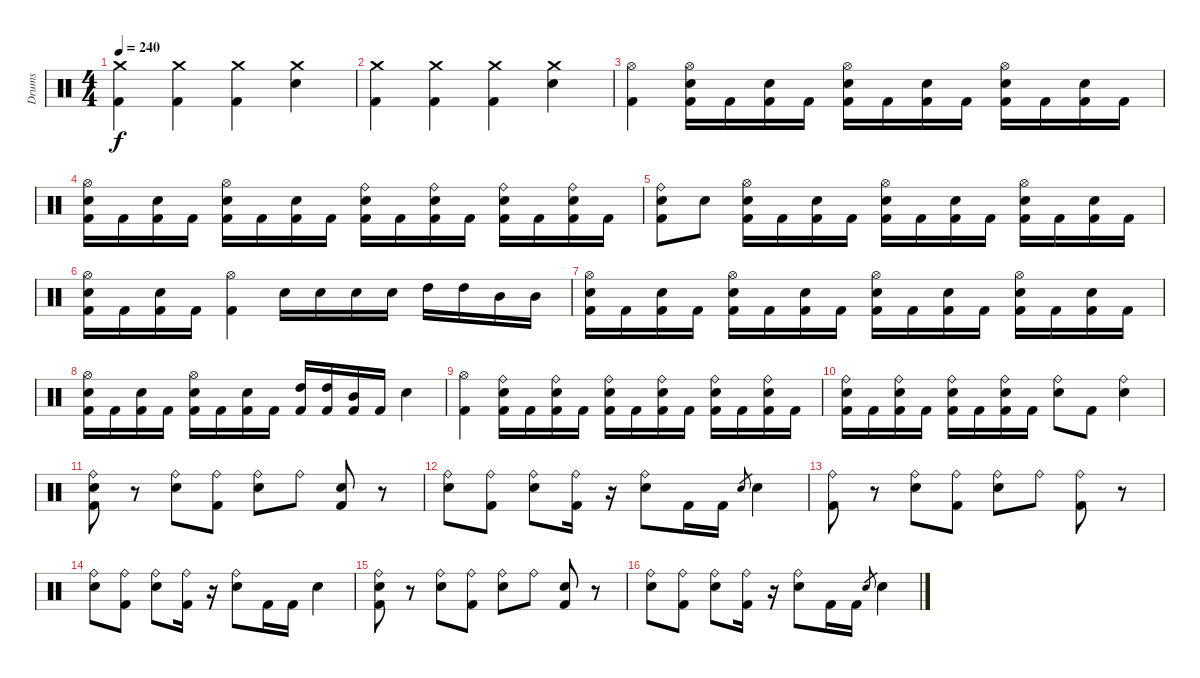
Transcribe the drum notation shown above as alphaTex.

\track ("Drums" "Drums") {instrument percussion}
\staff {score}
\articulation defaults
\ts (4 4)
\tempo 240
\clef neutral
\ks c
("Crash medium (hit)" "Kick (hit) 2").4{dy f} ("Crash medium (hit)" "Kick (hit) 2").4 ("Crash medium (hit)" "Kick (hit) 2").4 ("Crash medium (hit)" "Snare (hit) 2").4 |
("Crash medium (hit)" "Kick (hit) 2").4 ("Crash medium (hit)" "Kick (hit) 2").4 ("Crash medium (hit)" "Kick (hit) 2").4 ("Crash medium (hit)" "Snare (hit) 2").4 |
("Hi-Hat (open)" "Kick (hit) 2").4 ("Hi-Hat (open)" "Snare (hit) 2" "Kick (hit) 2").16 "Kick (hit) 2".16 ("Snare (hit) 2" "Kick (hit) 2").16 "Kick (hit) 2".16 ("Hi-Hat (open)" "Snare (hit) 2" "Kick (hit) 2").16 "Kick (hit) 2".16 ("Snare (hit) 2" "Kick (hit) 2").16 "Kick (hit) 2".16 ("Hi-Hat (open)" "Snare (hit) 2" "Kick (hit) 2").16 "Kick (hit) 2".16 ("Snare (hit) 2" "Kick (hit) 2").16 "Kick (hit) 2".16 |
("Hi-Hat (open)" "Snare (hit) 2" "Kick (hit) 2").16 "Kick (hit) 2".16 ("Snare (hit) 2" "Kick (hit) 2").16 "Kick (hit) 2".16 ("Hi-Hat (open)" "Snare (hit) 2" "Kick (hit) 2").16 "Kick (hit) 2".16 ("Snare (hit) 2" "Kick (hit) 2").16 "Kick (hit) 2".16 ("Ride (bell)" "Snare (hit) 2" "Kick (hit) 2").16 "Kick (hit) 2".16 ("Ride (bell)" "Snare (hit) 2" "Kick (hit) 2").16 "Kick (hit) 2".16 ("Ride (bell)" "Snare (hit) 2" "Kick (hit) 2").16 "Kick (hit) 2".16 ("Ride (bell)" "Snare (hit) 2" "Kick (hit) 2").16 "Kick (hit) 2".16 |
("Ride (bell)" "Snare (hit) 2" "Kick (hit) 2").8 "Snare (hit) 2".8 ("Hi-Hat (open)" "Snare (hit) 2" "Kick (hit) 2").16 "Kick (hit) 2".16 ("Snare (hit) 2" "Kick (hit) 2").16 "Kick (hit) 2".16 ("Hi-Hat (open)" "Snare (hit) 2" "Kick (hit) 2").16 "Kick (hit) 2".16 ("Snare (hit) 2" "Kick (hit) 2").16 "Kick (hit) 2".16 ("Hi-Hat (open)" "Snare (hit) 2" "Kick (hit) 2").16 "Kick (hit) 2".16 ("Snare (hit) 2" "Kick (hit) 2").16 "Kick (hit) 2".16 |
("Hi-Hat (open)" "Snare (hit) 2" "Kick (hit) 2").16 "Kick (hit) 2".16 ("Snare (hit) 2" "Kick (hit) 2").16 "Kick (hit) 2".16 ("Hi-Hat (open)" "Kick (hit) 2").4 "Snare (hit) 2".16 "Snare (hit) 2".16 "Snare (hit) 2".16 "Snare (hit) 2".16 "High Tom (hit)".16 "High Tom (hit)".16 "Mid Tom (hit)".16 "Mid Tom (hit)".16 |
("Hi-Hat (open)" "Snare (hit) 2" "Kick (hit) 2").16 "Kick (hit) 2".16 ("Snare (hit) 2" "Kick (hit) 2").16 "Kick (hit) 2".16 ("Hi-Hat (open)" "Snare (hit) 2" "Kick (hit) 2").16 "Kick (hit) 2".16 ("Snare (hit) 2" "Kick (hit) 2").16 "Kick (hit) 2".16 ("Hi-Hat (open)" "Snare (hit) 2" "Kick (hit) 2").16 "Kick (hit) 2".16 ("Snare (hit) 2" "Kick (hit) 2").16 "Kick (hit) 2".16 ("Hi-Hat (open)" "Snare (hit) 2" "Kick (hit) 2").16 "Kick (hit) 2".16 ("Snare (hit) 2" "Kick (hit) 2").16 "Kick (hit) 2".16 |
("Hi-Hat (open)" "Snare (hit) 2" "Kick (hit) 2").16 "Kick (hit) 2".16 ("Snare (hit) 2" "Kick (hit) 2").16 "Kick (hit) 2".16 ("Hi-Hat (open)" "Snare (hit) 2" "Kick (hit) 2").16 "Kick (hit) 2".16 ("Snare (hit) 2" "Kick (hit) 2").16 "Kick (hit) 2".16 ("High Tom (hit)" "Kick (hit) 2").16 ("High Tom (hit)" "Kick (hit) 2").16 ("Mid Tom (hit)" "Kick (hit) 2").16 "Kick (hit) 2".16 "Snare (hit) 2".4 |
("Hi-Hat (open)" "Kick (hit) 2").4 ("Ride (bell)" "Snare (hit) 2" "Kick (hit) 2").16 "Kick (hit) 2".16 ("Ride (bell)" "Snare (hit) 2" "Kick (hit) 2").16 "Kick (hit) 2".16 ("Ride (bell)" "Snare (hit) 2" "Kick (hit) 2").16 "Kick (hit) 2".16 ("Ride (bell)" "Snare (hit) 2" "Kick (hit) 2").16 "Kick (hit) 2".16 ("Ride (bell)" "Snare (hit) 2" "Kick (hit) 2").16 "Kick (hit) 2".16 ("Ride (bell)" "Snare (hit) 2" "Kick (hit) 2").16 "Kick (hit) 2".16 |
("Ride (bell)" "Snare (hit) 2" "Kick (hit) 2").16 "Kick (hit) 2".16 ("Ride (bell)" "Snare (hit) 2" "Kick (hit) 2").16 "Kick (hit) 2".16 ("Ride (bell)" "Snare (hit) 2" "Kick (hit) 2").16 "Kick (hit) 2".16 ("Ride (bell)" "Snare (hit) 2" "Kick (hit) 2").16 "Kick (hit) 2".16 ("Ride (bell)" "Snare (hit) 2").8 "Kick (hit) 2".8 ("Ride (bell)" "Snare (hit) 2").4 |
("Ride (bell)" "Snare (hit) 2" "Kick (hit) 2").8 r.8 ("Ride (bell)" "Snare (hit) 2").8 ("Ride (bell)" "Kick (hit) 2").8 ("Ride (bell)" "Snare (hit) 2").8 "Ride (bell)".8 ("Snare (hit) 2" "Kick (hit) 2").8 r.8 |
("Ride (bell)" "Snare (hit) 2").8 ("Ride (bell)" "Kick (hit) 2").8 ("Ride (bell)" "Snare (hit) 2").8 ("Ride (bell)" "Kick (hit) 2").16 r.16 ("Ride (bell)" "Snare (hit) 2").8 "Kick (hit) 2".16 "Kick (hit) 2".16 "Snare (hit) 2".8{gr} "Snare (hit) 2".4 |
("Ride (bell)" "Kick (hit) 2").8 r.8 ("Ride (bell)" "Snare (hit) 2").8 ("Ride (bell)" "Kick (hit) 2").8 ("Ride (bell)" "Snare (hit) 2").8 "Ride (bell)".8 ("Ride (bell)" "Kick (hit) 2").8 r.8 |
("Ride (bell)" "Snare (hit) 2").8 ("Ride (bell)" "Kick (hit) 2").8 ("Ride (bell)" "Snare (hit) 2").8 ("Ride (bell)" "Kick (hit) 2").16 r.16 ("Ride (bell)" "Snare (hit) 2").8 "Kick (hit) 2".16 "Kick (hit) 2".16 "Snare (hit) 2".4 |
("Ride (bell)" "Snare (hit) 2" "Kick (hit) 2").8 r.8 ("Ride (bell)" "Snare (hit) 2").8 ("Ride (bell)" "Kick (hit) 2").8 ("Ride (bell)" "Snare (hit) 2").8 "Ride (bell)".8 ("Snare (hit) 2" "Kick (hit) 2").8 r.8 |
("Ride (bell)" "Snare (hit) 2").8 ("Ride (bell)" "Kick (hit) 2").8 ("Ride (bell)" "Snare (hit) 2").8 ("Ride (bell)" "Kick (hit) 2").16 r.16 ("Ride (bell)" "Snare (hit) 2").8 "Kick (hit) 2".16 "Kick (hit) 2".16 "Snare (hit) 2".8{gr} "Snare (hit) 2".4
